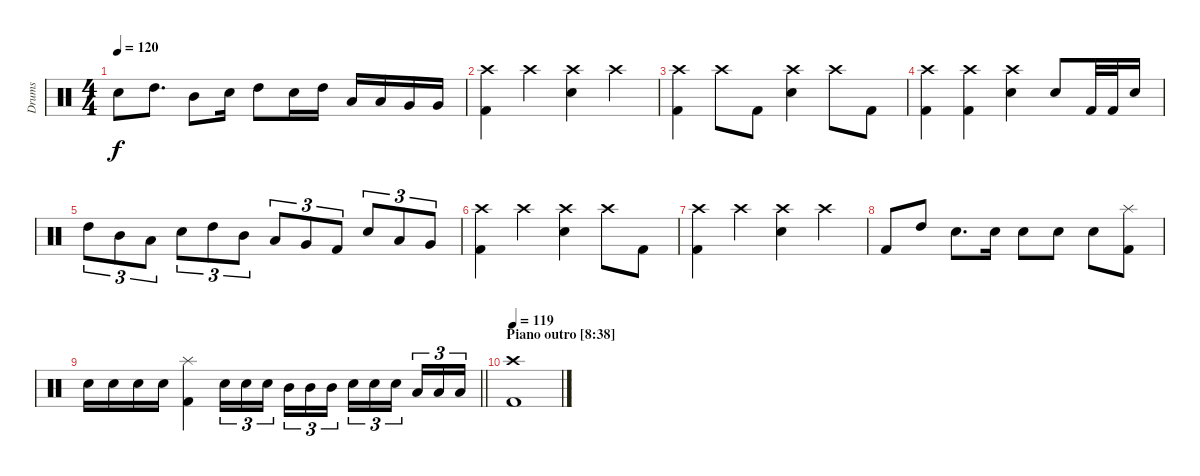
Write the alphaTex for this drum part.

\track ("Drums" "Drums") {instrument percussion}
\staff {score}
\articulation defaults
\ts (4 4)
\tempo 120
\clef neutral
\ks c "Snare (hit) 2".8{dy f} "High Tom (hit)".8{d} "Mid Tom (hit)".8 "Snare (hit) 2".16 "High Tom (hit)".8 "Snare (hit) 2".16 "High Tom (hit)".16 "Low Tom (hit)".16 "Low Tom (hit)".16 "Very Low Tom (hit)".16 "Very Low Tom (hit)".16
|
("Crash high (hit)" "Kick (hit) 2").4 "Crash high (hit)".4 ("Crash high (hit)" "Snare (hit) 2").4 "Crash high (hit)".4 |
("Crash high (hit)" "Kick (hit) 2").4 "Crash high (hit)".8 "Kick (hit) 2".8 ("Crash high (hit)" "Snare (hit) 2").4 "Crash high (hit)".8 "Kick (hit) 2".8 |
("Crash high (hit)" "Kick (hit) 2").4 ("Crash high (hit)" "Kick (hit) 2").4 ("Crash high (hit)" "Snare (hit) 2").4 "Snare (hit) 2".8 "Kick (hit) 2".32 "Kick (hit) 2".32 "Snare (hit) 2".16 |
"High Tom (hit)".8{tu (3 2)} "Mid Tom (hit)".8{tu (3 2)} "Low Tom (hit)".8{tu (3 2)} "Snare (hit) 2".8{tu (3 2)} "High Tom (hit)".8{tu (3 2)} "Mid Tom (hit)".8{tu (3 2)} "Low Tom (hit)".8{tu (3 2)} "Very Low Tom (hit)".8{tu (3 2)} "Kick (hit) 2".8{tu (3 2)} "Snare (hit) 2".8{tu (3 2)} "Low Tom (hit)".8{tu (3 2)} "Very Low Tom (hit)".8{tu (3 2)} |
("Crash high (hit)" "Kick (hit) 2").4 "Crash high (hit)".4 ("Crash high (hit)" "Snare (hit) 2").4 "Crash high (hit)".8 "Kick (hit) 2".8 |
("Crash high (hit)" "Kick (hit) 2").4 "Crash high (hit)".4 ("Crash high (hit)" "Snare (hit) 2").4 "Crash high (hit)".4 |
"Kick (hit) 2".8 "High Tom (hit)".8 "Snare (hit) 2".8{d} "Snare (hit) 2".16 "Snare (hit) 2".8 "Snare (hit) 2".8 "Snare (hit) 2".8 ("Splash (hit)" "Kick (hit) 2").8 |
\barLineRight lightlight "Snare (hit) 2".16 "Snare (hit) 2".16 "Snare (hit) 2".16 "Snare (hit) 2".16
("Splash (hit)" "Kick (hit) 2").4 "Snare (hit) 2".16{tu (3 2)} "Snare (hit) 2".16{tu (3 2)} "Snare (hit) 2".16{tu (3 2) beam splitsecondary} "Mid Tom (hit)".16{tu (3 2)} "Mid Tom (hit)".16{tu (3 2)} "Mid Tom (hit)".16{tu (3 2)} "Snare (hit) 2".16{tu (3 2)} "Snare (hit) 2".16{tu (3 2)} "Snare (hit) 2".16{tu (3 2) beam splitsecondary} "Low Tom (hit)".16{tu (3 2)} "Low Tom (hit)".16{tu (3 2)} "Low Tom (hit)".16{tu (3 2)} |
\section ("" "Piano outro [8:38]")
\tempo 119
("Crash high (hit)" "Kick (hit) 2").1
